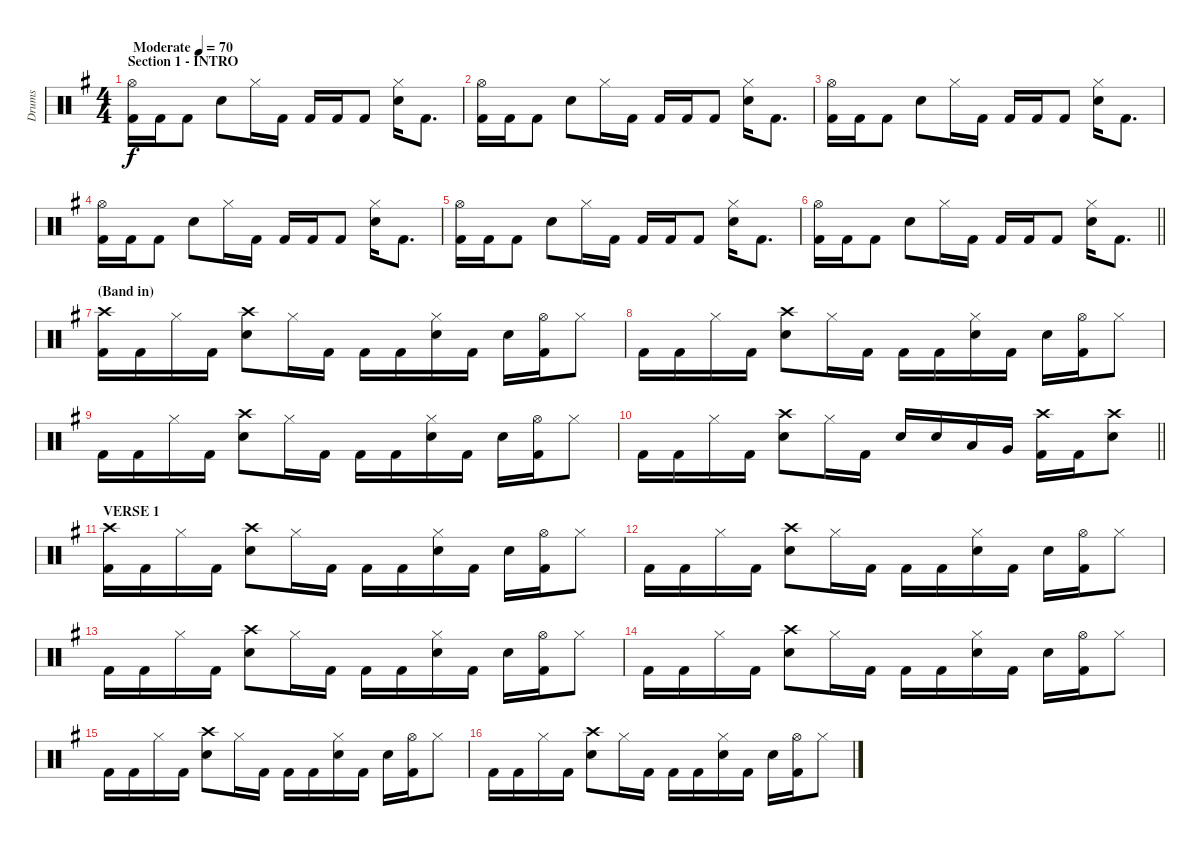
\track ("Drums" "Drums") {instrument percussion}
\staff {score}
\articulation defaults
\ts (4 4)
\section ("" "Section 1 - INTRO")
\tempo (70 "Moderate")
\clef neutral
\ks eminor
("Hi-Hat (open)" "Kick (hit) 2").16{dy f} "Kick (hit) 2".16 "Kick (hit) 2".8 "Electric Snare (hit)".8 "Hi-Hat (closed)".16 "Kick (hit) 2".16 "Kick (hit) 2".16 "Kick (hit) 2".16 "Kick (hit) 2".8 ("Hi-Hat (closed)" "Electric Snare (hit)").16 "Kick (hit) 2".8{d} |
("Hi-Hat (open)" "Kick (hit) 2").16 "Kick (hit) 2".16 "Kick (hit) 2".8 "Electric Snare (hit)".8 "Hi-Hat (closed)".16 "Kick (hit) 2".16 "Kick (hit) 2".16 "Kick (hit) 2".16 "Kick (hit) 2".8 ("Hi-Hat (closed)" "Electric Snare (hit)").16 "Kick (hit) 2".8{d} |
("Hi-Hat (open)" "Kick (hit) 2").16 "Kick (hit) 2".16 "Kick (hit) 2".8 "Electric Snare (hit)".8 "Hi-Hat (closed)".16 "Kick (hit) 2".16 "Kick (hit) 2".16 "Kick (hit) 2".16 "Kick (hit) 2".8 ("Hi-Hat (closed)" "Electric Snare (hit)").16 "Kick (hit) 2".8{d} |
("Hi-Hat (open)" "Kick (hit) 2").16 "Kick (hit) 2".16 "Kick (hit) 2".8 "Electric Snare (hit)".8 "Hi-Hat (closed)".16 "Kick (hit) 2".16 "Kick (hit) 2".16 "Kick (hit) 2".16 "Kick (hit) 2".8 ("Hi-Hat (closed)" "Electric Snare (hit)").16 "Kick (hit) 2".8{d} |
("Hi-Hat (open)" "Kick (hit) 2").16 "Kick (hit) 2".16 "Kick (hit) 2".8 "Electric Snare (hit)".8 "Hi-Hat (closed)".16 "Kick (hit) 2".16 "Kick (hit) 2".16 "Kick (hit) 2".16 "Kick (hit) 2".8 ("Hi-Hat (closed)" "Electric Snare (hit)").16 "Kick (hit) 2".8{d} |
\barLineRight lightlight
("Hi-Hat (open)" "Kick (hit) 2").16 "Kick (hit) 2".16 "Kick (hit) 2".8 "Electric Snare (hit)".8 "Hi-Hat (closed)".16 "Kick (hit) 2".16 "Kick (hit) 2".16 "Kick (hit) 2".16 "Kick (hit) 2".8 ("Hi-Hat (closed)" "Electric Snare (hit)").16 "Kick (hit) 2".8{d} |
\section ("" "(Band in)")
("Crash high (hit)" "Kick (hit) 2").16 "Kick (hit) 2".16 "Hi-Hat (closed)".16 "Kick (hit) 2".16 ("Crash high (hit)" "Electric Snare (hit)").8 "Hi-Hat (closed)".16 "Kick (hit) 2".16 "Kick (hit) 2".16 "Kick (hit) 2".16 ("Hi-Hat (closed)" "Electric Snare (hit)").16 "Kick (hit) 2".16 "Electric Snare (hit)".16 ("Hi-Hat (open)" "Kick (hit) 2").16 "Hi-Hat (closed)".8 |
"Kick (hit) 2".16 "Kick (hit) 2".16 "Hi-Hat (closed)".16 "Kick (hit) 2".16 ("Crash high (hit)" "Electric Snare (hit)").8 "Hi-Hat (closed)".16 "Kick (hit) 2".16 "Kick (hit) 2".16 "Kick (hit) 2".16 ("Hi-Hat (closed)" "Electric Snare (hit)").16 "Kick (hit) 2".16 "Electric Snare (hit)".16 ("Hi-Hat (open)" "Kick (hit) 2").16 "Hi-Hat (closed)".8 |
"Kick (hit) 2".16 "Kick (hit) 2".16 "Hi-Hat (closed)".16 "Kick (hit) 2".16 ("Crash high (hit)" "Electric Snare (hit)").8 "Hi-Hat (closed)".16 "Kick (hit) 2".16 "Kick (hit) 2".16 "Kick (hit) 2".16 ("Hi-Hat (closed)" "Electric Snare (hit)").16 "Kick (hit) 2".16 "Electric Snare (hit)".16 ("Hi-Hat (open)" "Kick (hit) 2").16 "Hi-Hat (closed)".8 |
\barLineRight lightlight "Kick (hit) 2".16 "Kick (hit) 2".16 "Hi-Hat (closed)".16 "Kick (hit) 2".16
("Crash high (hit)" "Electric Snare (hit)").8 "Hi-Hat (closed)".16 "Kick (hit) 2".16 "Electric Snare (hit)".16 "Electric Snare (hit)".16 "Low Tom (hit)".16 "Very Low Tom (hit)".16 ("Crash high (hit)" "Kick (hit) 2").16 "Kick (hit) 2".16 ("Crash high (hit)" "Electric Snare (hit)").8 |
\section ("" "VERSE 1")
("Crash high (hit)" "Kick (hit) 2").16 "Kick (hit) 2".16 "Hi-Hat (closed)".16 "Kick (hit) 2".16 ("Crash high (hit)" "Electric Snare (hit)").8 "Hi-Hat (closed)".16 "Kick (hit) 2".16 "Kick (hit) 2".16 "Kick (hit) 2".16 ("Hi-Hat (closed)" "Electric Snare (hit)").16 "Kick (hit) 2".16 "Electric Snare (hit)".16 ("Hi-Hat (open)" "Kick (hit) 2").16 "Hi-Hat (closed)".8 |
"Kick (hit) 2".16 "Kick (hit) 2".16 "Hi-Hat (closed)".16 "Kick (hit) 2".16 ("Crash high (hit)" "Electric Snare (hit)").8 "Hi-Hat (closed)".16 "Kick (hit) 2".16 "Kick (hit) 2".16 "Kick (hit) 2".16 ("Hi-Hat (closed)" "Electric Snare (hit)").16 "Kick (hit) 2".16 "Electric Snare (hit)".16 ("Hi-Hat (open)" "Kick (hit) 2").16 "Hi-Hat (closed)".8 |
"Kick (hit) 2".16 "Kick (hit) 2".16 "Hi-Hat (closed)".16 "Kick (hit) 2".16 ("Crash high (hit)" "Electric Snare (hit)").8 "Hi-Hat (closed)".16 "Kick (hit) 2".16 "Kick (hit) 2".16 "Kick (hit) 2".16 ("Hi-Hat (closed)" "Electric Snare (hit)").16 "Kick (hit) 2".16 "Electric Snare (hit)".16 ("Hi-Hat (open)" "Kick (hit) 2").16 "Hi-Hat (closed)".8 |
"Kick (hit) 2".16 "Kick (hit) 2".16 "Hi-Hat (closed)".16 "Kick (hit) 2".16 ("Crash high (hit)" "Electric Snare (hit)").8 "Hi-Hat (closed)".16 "Kick (hit) 2".16 "Kick (hit) 2".16 "Kick (hit) 2".16 ("Hi-Hat (closed)" "Electric Snare (hit)").16 "Kick (hit) 2".16 "Electric Snare (hit)".16 ("Hi-Hat (open)" "Kick (hit) 2").16 "Hi-Hat (closed)".8 |
"Kick (hit) 2".16 "Kick (hit) 2".16 "Hi-Hat (closed)".16 "Kick (hit) 2".16 ("Crash high (hit)" "Electric Snare (hit)").8 "Hi-Hat (closed)".16 "Kick (hit) 2".16 "Kick (hit) 2".16 "Kick (hit) 2".16 ("Hi-Hat (closed)" "Electric Snare (hit)").16 "Kick (hit) 2".16 "Electric Snare (hit)".16 ("Hi-Hat (open)" "Kick (hit) 2").16 "Hi-Hat (closed)".8 |
"Kick (hit) 2".16 "Kick (hit) 2".16 "Hi-Hat (closed)".16 "Kick (hit) 2".16 ("Crash high (hit)" "Electric Snare (hit)").8 "Hi-Hat (closed)".16 "Kick (hit) 2".16 "Kick (hit) 2".16 "Kick (hit) 2".16 ("Hi-Hat (closed)" "Electric Snare (hit)").16 "Kick (hit) 2".16 "Electric Snare (hit)".16 ("Hi-Hat (open)" "Kick (hit) 2").16 "Hi-Hat (closed)".8
